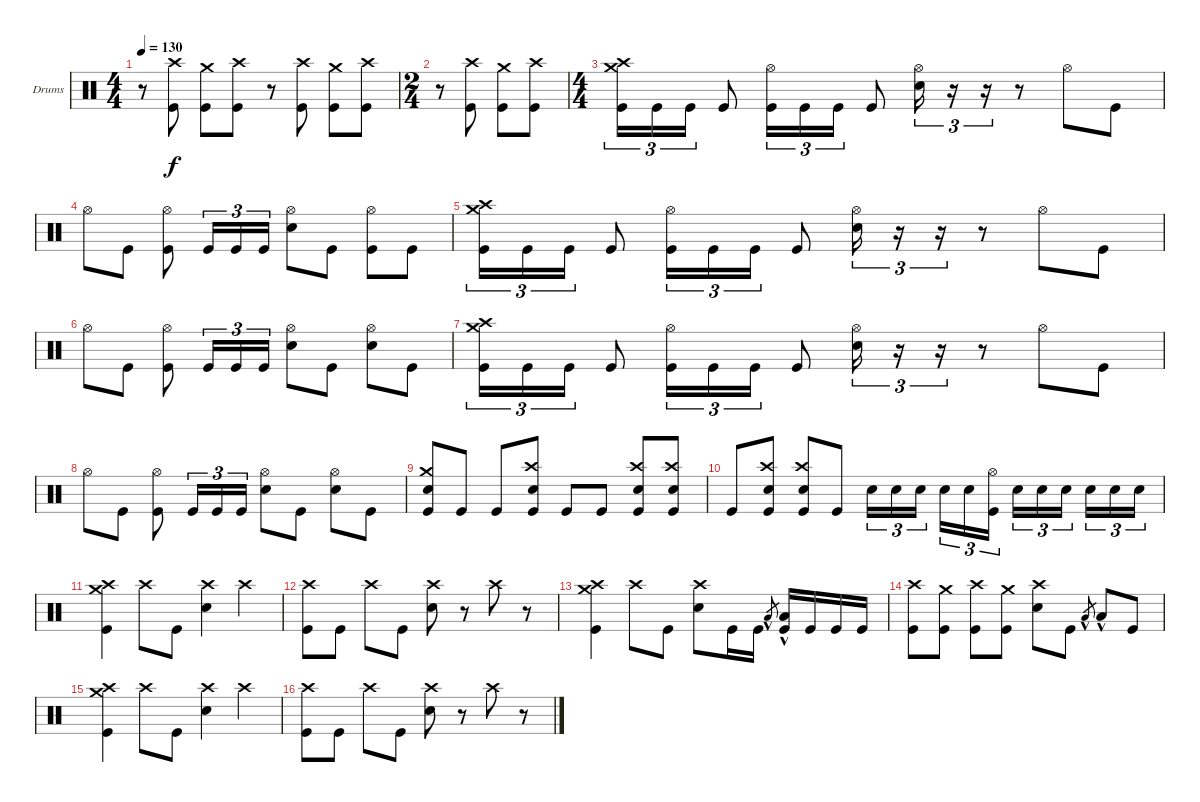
\bracketExtendMode groupsimilarinstruments
\firstSystemTrackNameOrientation horizontal
\otherSystemsTrackNameOrientation horizontal
\track ("Drumkit" "Drums") {instrument percussion}
\staff {score}
\articulation defaults
\ts (4 4)
\tempo 130
\clef neutral
\ks c
r.8{dy f} ("Kick (hit)" "Crash high (hit)").8 ("Crash medium (hit)" "Kick (hit)").8 ("Crash high (hit)" "Kick (hit)").8 r.8 ("Kick (hit)" "Crash high (hit)").8 ("Crash medium (hit)" "Kick (hit)").8 ("Crash high (hit)" "Kick (hit)").8 |
\ts (2 4)
r.8 ("Kick (hit)" "Crash high (hit)").8 ("Crash medium (hit)" "Kick (hit)").8 ("Crash high (hit)" "Kick (hit)").8 |
\ts (4 4)
("Kick (hit)" "Crash high (hit)" "Crash medium (hit)").16{tu (3 2)} "Kick (hit)".16{tu (3 2)} "Kick (hit)".16{tu (3 2)} "Kick (hit)".8 ("Kick (hit)" "Hi-Hat (open)").16{tu (3 2)} "Kick (hit)".16{tu (3 2)} "Kick (hit)".16{tu (3 2)} "Kick (hit)".8 ("Hi-Hat (open)" "Snare (hit) 2").16{tu (3 2)} r.16{tu (3 2)} r.16{tu (3 2)} r.8 "Hi-Hat (open)".8 "Kick (hit)".8 |
"Hi-Hat (open)".8 "Kick (hit)".8 ("Kick (hit)" "Hi-Hat (open)").8 "Kick (hit)".16{tu (3 2)} "Kick (hit)".16{tu (3 2)} "Kick (hit)".16{tu (3 2)} ("Hi-Hat (open)" "Snare (hit) 2").8 "Kick (hit)".8 ("Kick (hit)" "Hi-Hat (open)").8 "Kick (hit)".8 |
("Kick (hit)" "Crash high (hit)" "Crash medium (hit)").16{tu (3 2)} "Kick (hit)".16{tu (3 2)} "Kick (hit)".16{tu (3 2)} "Kick (hit)".8 ("Kick (hit)" "Hi-Hat (open)").16{tu (3 2)} "Kick (hit)".16{tu (3 2)} "Kick (hit)".16{tu (3 2)} "Kick (hit)".8 ("Hi-Hat (open)" "Snare (hit) 2").16{tu (3 2)} r.16{tu (3 2)} r.16{tu (3 2)} r.8 "Hi-Hat (open)".8 "Kick (hit)".8 |
"Hi-Hat (open)".8 "Kick (hit)".8 ("Kick (hit)" "Hi-Hat (open)").8 "Kick (hit)".16{tu (3 2)} "Kick (hit)".16{tu (3 2)} "Kick (hit)".16{tu (3 2)} ("Hi-Hat (open)" "Snare (hit) 2").8 "Kick (hit)".8 ("Hi-Hat (open)" "Snare (hit) 2").8 "Kick (hit)".8 |
("Kick (hit)" "Crash high (hit)" "Crash medium (hit)").16{tu (3 2)} "Kick (hit)".16{tu (3 2)} "Kick (hit)".16{tu (3 2)} "Kick (hit)".8 ("Kick (hit)" "Hi-Hat (open)").16{tu (3 2)} "Kick (hit)".16{tu (3 2)} "Kick (hit)".16{tu (3 2)} "Kick (hit)".8 ("Hi-Hat (open)" "Snare (hit) 2").16{tu (3 2)} r.16{tu (3 2)} r.16{tu (3 2)} r.8 "Hi-Hat (open)".8 "Kick (hit)".8 |
"Hi-Hat (open)".8 "Kick (hit)".8 ("Kick (hit)" "Hi-Hat (open)").8 "Kick (hit)".16{tu (3 2)} "Kick (hit)".16{tu (3 2)} "Kick (hit)".16{tu (3 2)} ("Hi-Hat (open)" "Snare (hit) 2").8 "Kick (hit)".8 ("Hi-Hat (open)" "Snare (hit) 2").8 "Kick (hit)".8 |
("Crash medium (hit)" "Snare (hit) 2" "Kick (hit)").8 "Kick (hit)".8 "Kick (hit)".8 ("Snare (hit) 2" "Crash high (hit)" "Kick (hit)").8 "Kick (hit)".8 "Kick (hit)".8 ("Snare (hit) 2" "Crash high (hit)" "Kick (hit)").8 ("Snare (hit) 2" "Crash high (hit)" "Kick (hit)").8 |
"Kick (hit)".8 ("Kick (hit)" "Snare (hit) 2" "Crash high (hit)").8 ("Kick (hit)" "Snare (hit) 2" "Crash high (hit)").8 "Kick (hit)".8 "Snare (hit) 2".16{tu (3 2)} "Snare (hit) 2".16{tu (3 2)} "Snare (hit) 2".16{tu (3 2)} "Snare (hit) 2".16{tu (3 2)} "Snare (hit) 2".16{tu (3 2)} ("Kick (hit)" "Hi-Hat (open)").16{tu (3 2)} "Snare (hit) 2".16{tu (3 2)} "Snare (hit) 2".16{tu (3 2)} "Snare (hit) 2".16{tu (3 2)} "Snare (hit) 2".16{tu (3 2)} "Snare (hit) 2".16{tu (3 2)} "Snare (hit) 2".16{tu (3 2)} |
("Kick (hit)" "Crash medium (hit)" "Crash high (hit)").4 "Crash high (hit)".8 "Kick (hit)".8 ("Snare (hit) 2" "Crash high (hit)").4 "Crash high (hit)".4 |
("Kick (hit)" "Crash high (hit)").8 "Kick (hit)".8 "Crash high (hit)".8 "Kick (hit)".8 ("Snare (hit) 2" "Crash high (hit)").8 r.8 "Crash high (hit)".8 r.8 |
("Kick (hit)" "Crash medium (hit)" "Crash high (hit)").4 "Crash high (hit)".8 "Kick (hit)".8 ("Snare (hit) 2" "Crash high (hit)").8 "Kick (hit)".16 "Kick (hit)".16 "Low Tom (hit)"{hac}.8{gr} ("Low Tom (hit)"{hac} "Kick (hit)").16 "Kick (hit)".16 "Kick (hit)".16 "Kick (hit)".16 |
("Kick (hit)" "Crash high (hit)").8 ("Kick (hit)" "Crash medium (hit)").8 ("Crash high (hit)" "Kick (hit)").8 ("Kick (hit)" "Crash medium (hit)").8 ("Snare (hit) 2" "Crash high (hit)").8 "Kick (hit)".8 "Low Tom (hit)"{hac}.8{gr} "Low Tom (hit)"{hac}.8 "Kick (hit)".8 |
("Kick (hit)" "Crash medium (hit)" "Crash high (hit)").4 "Crash high (hit)".8 "Kick (hit)".8 ("Snare (hit) 2" "Crash high (hit)").4 "Crash high (hit)".4 |
("Kick (hit)" "Crash high (hit)").8 "Kick (hit)".8 "Crash high (hit)".8 "Kick (hit)".8 ("Snare (hit) 2" "Crash high (hit)").8 r.8 "Crash high (hit)".8 r.8
